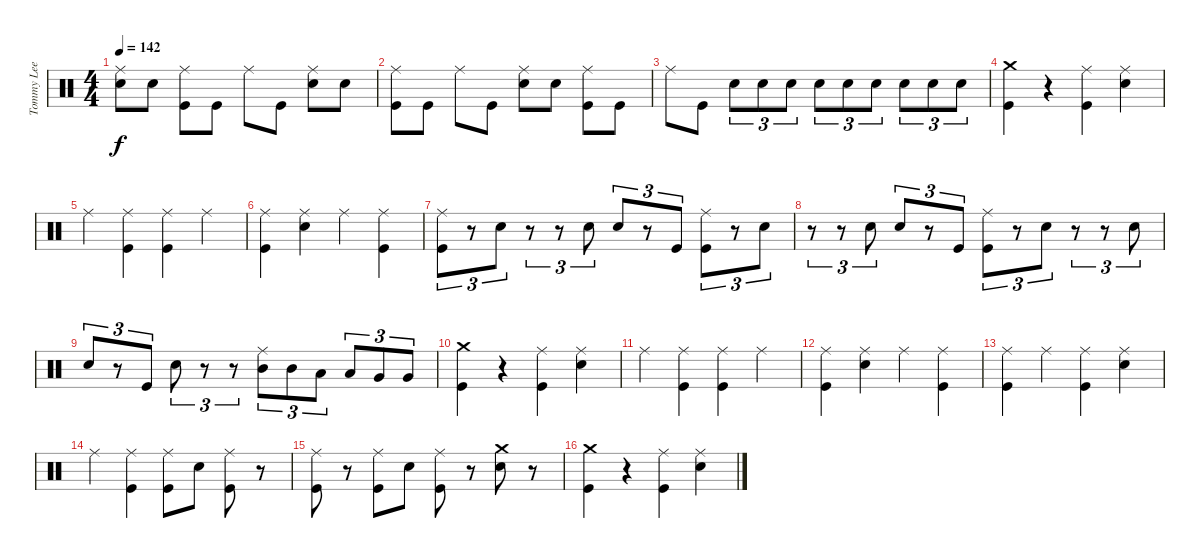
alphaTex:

\track ("Tommy Lee" "Tommy Lee") {instrument percussion}
\staff {score}
\articulation defaults
\ts (4 4)
\tempo 142
\clef neutral
\ks c
("Ride (middle)" "Snare (hit) 2").8{dy f} "Snare (hit) 2".8 ("Ride (middle)" "Kick (hit)").8 "Kick (hit)".8 "Ride (middle)".8 "Kick (hit)".8 ("Ride (middle)" "Snare (hit) 2").8 "Snare (hit) 2".8 |
("Ride (middle)" "Kick (hit)").8 "Kick (hit)".8 "Ride (middle)".8 "Kick (hit)".8 ("Ride (middle)" "Snare (hit) 2").8 "Snare (hit) 2".8 ("Ride (middle)" "Kick (hit)").8 "Kick (hit)".8 |
"Ride (middle)".8 "Kick (hit)".8 "Snare (hit) 2".8{tu (3 2)} "Snare (hit) 2".8{tu (3 2)} "Snare (hit) 2".8{tu (3 2)} "Snare (hit) 2".8{tu (3 2)} "Snare (hit) 2".8{tu (3 2)} "Snare (hit) 2".8{tu (3 2)} "Snare (hit) 2".8{tu (3 2)} "Snare (hit) 2".8{tu (3 2)} "Snare (hit) 2".8{tu (3 2)} |
("Crash medium (hit)" "Kick (hit)").4 r.4 ("Ride (middle)" "Kick (hit)").4 ("Ride (middle)" "Snare (hit) 2").4 |
"Ride (middle)".4 ("Ride (middle)" "Kick (hit)").4 ("Ride (middle)" "Kick (hit)").4 "Ride (middle)".4 |
("Ride (middle)" "Kick (hit)").4 ("Ride (middle)" "Snare (hit) 2").4 "Ride (middle)".4 ("Ride (middle)" "Kick (hit)").4 |
("Ride (middle)" "Kick (hit)").8{tu (3 2)} r.8{tu (3 2)} "Snare (hit) 2".8{tu (3 2)} r.8{tu (3 2)} r.8{tu (3 2)} "Snare (hit) 2".8{tu (3 2)} "Snare (hit) 2".8{tu (3 2)} r.8{tu (3 2)} "Kick (hit)".8{tu (3 2)} ("Ride (middle)" "Kick (hit)").8{tu (3 2)} r.8{tu (3 2)} "Snare (hit) 2".8{tu (3 2)} |
r.8{tu (3 2)} r.8{tu (3 2)} "Snare (hit) 2".8{tu (3 2)} "Snare (hit) 2".8{tu (3 2)} r.8{tu (3 2)} "Kick (hit)".8{tu (3 2)} ("Ride (middle)" "Kick (hit)").8{tu (3 2)} r.8{tu (3 2)} "Snare (hit) 2".8{tu (3 2)} r.8{tu (3 2)} r.8{tu (3 2)} "Snare (hit) 2".8{tu (3 2)} |
"Snare (hit) 2".8{tu (3 2)} r.8{tu (3 2)} "Kick (hit)".8{tu (3 2)} "Snare (hit) 2".8{tu (3 2)} r.8{tu (3 2)} r.8{tu (3 2)} ("Ride (middle)" "Mid Tom (hit)").8{tu (3 2)} "Mid Tom (hit)".8{tu (3 2)} "Low Tom (hit)".8{tu (3 2)} "Low Tom (hit)".8{tu (3 2)} "Very Low Tom (hit)".8{tu (3 2)} "Very Low Tom (hit)".8{tu (3 2)} |
("Crash medium (hit)" "Kick (hit)").4 r.4 ("Ride (middle)" "Kick (hit)").4 ("Ride (middle)" "Snare (hit) 2").4 |
"Ride (middle)".4 ("Ride (middle)" "Kick (hit)").4 ("Ride (middle)" "Kick (hit)").4 "Ride (middle)".4 |
("Ride (middle)" "Kick (hit)").4 ("Ride (middle)" "Snare (hit) 2").4 "Ride (middle)".4 ("Ride (middle)" "Kick (hit)").4 |
("Ride (middle)" "Kick (hit)").4 "Ride (middle)".4 ("Ride (middle)" "Kick (hit)").4 ("Ride (middle)" "Snare (hit) 2").4 |
"Ride (middle)".4 ("Ride (middle)" "Kick (hit)").4 ("Ride (middle)" "Kick (hit)").8 "Snare (hit) 2".8 ("Ride (middle)" "Kick (hit)").8 r.8 |
("Ride (middle)" "Kick (hit)").8 r.8 ("Ride (middle)" "Kick (hit)").8 "Snare (hit) 2".8 ("Ride (middle)" "Kick (hit)").8 r.8 ("Crash medium (hit)" "Snare (hit) 2").8 r.8 |
("Crash medium (hit)" "Kick (hit)").4 r.4 ("Ride (middle)" "Kick (hit)").4 ("Ride (middle)" "Snare (hit) 2").4
